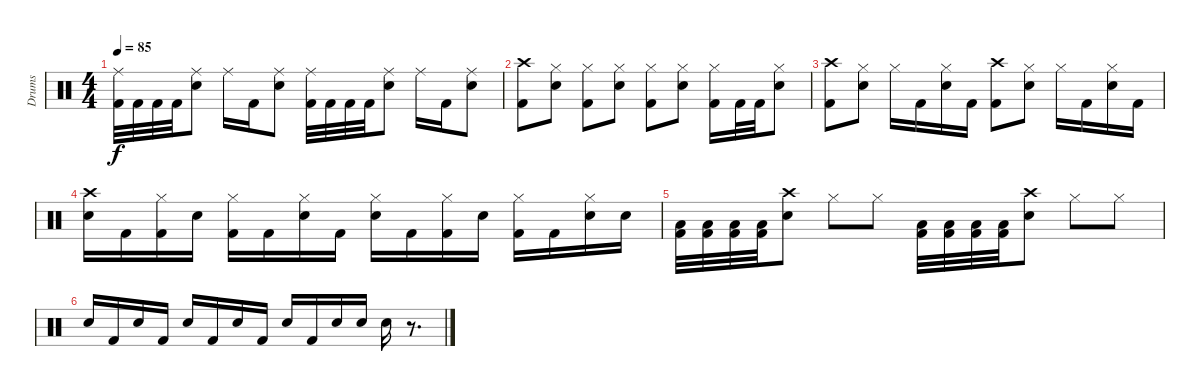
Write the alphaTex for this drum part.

\track ("Drums" "Drums") {instrument percussion}
\staff {score}
\articulation defaults
\ts (4 4)
\tempo 85
\clef neutral
\ks c
("Ride (middle)" "Kick (hit) 2").32{dy f} "Kick (hit) 2".32 "Kick (hit) 2".32 "Kick (hit) 2".32 ("Ride (middle)" "Electric Snare (hit)").8 "Ride (middle)".16 "Kick (hit) 2".16 ("Ride (middle)" "Electric Snare (hit)").8 ("Ride (middle)" "Kick (hit) 2").32 "Kick (hit) 2".32 "Kick (hit) 2".32 "Kick (hit) 2".32 ("Ride (middle)" "Electric Snare (hit)").8 "Ride (middle)".16 "Kick (hit) 2".16 ("Ride (middle)" "Electric Snare (hit)").8 |
("Crash high (hit)" "Kick (hit) 2").8 ("Hi-Hat (closed)" "Electric Snare (hit)").8 ("Hi-Hat (closed)" "Kick (hit) 2").8 ("Hi-Hat (closed)" "Electric Snare (hit)").8 ("Hi-Hat (closed)" "Kick (hit) 2").8 ("Hi-Hat (closed)" "Electric Snare (hit)").8 ("Hi-Hat (closed)" "Kick (hit) 2").16 "Kick (hit) 2".32 "Kick (hit) 2".32 ("Hi-Hat (closed)" "Electric Snare (hit)").8 |
("Crash high (hit)" "Kick (hit) 2").8 ("Hi-Hat (closed)" "Electric Snare (hit)").8 "Hi-Hat (closed)".16 "Kick (hit) 2".16 ("Hi-Hat (closed)" "Electric Snare (hit)").16 "Kick (hit) 2".16 ("Crash high (hit)" "Kick (hit) 2").8 ("Hi-Hat (closed)" "Electric Snare (hit)").8 "Hi-Hat (closed)".16 "Kick (hit) 2".16 ("Hi-Hat (closed)" "Electric Snare (hit)").16 "Kick (hit) 2".16 |
("Crash high (hit)" "Electric Snare (hit)").16 "Kick (hit) 2".16 ("Hi-Hat (closed)" "Kick (hit) 2").16 "Electric Snare (hit)".16 ("Hi-Hat (closed)" "Kick (hit) 2").16 "Kick (hit) 2".16 ("Hi-Hat (closed)" "Electric Snare (hit)").16 "Kick (hit) 2".16 ("Hi-Hat (closed)" "Electric Snare (hit)").16 "Kick (hit) 2".16 ("Hi-Hat (closed)" "Kick (hit) 2").16 "Electric Snare (hit)".16 ("Hi-Hat (closed)" "Kick (hit) 2").16 "Kick (hit) 2".16 ("Hi-Hat (closed)" "Electric Snare (hit)").16 "Electric Snare (hit)".16 |
("Low Tom (hit)" "Kick (hit) 2").32 ("Low Tom (hit)" "Kick (hit) 2").32 ("Low Tom (hit)" "Kick (hit) 2").32 ("Low Tom (hit)" "Kick (hit) 2").32 ("Crash high (hit)" "Electric Snare (hit)").8 "Hi-Hat (closed)".8 "Hi-Hat (closed)".8 ("Low Tom (hit)" "Kick (hit) 2").32 ("Low Tom (hit)" "Kick (hit) 2").32 ("Low Tom (hit)" "Kick (hit) 2").32 ("Low Tom (hit)" "Kick (hit) 2").32 ("Crash high (hit)" "Electric Snare (hit)").8 "Hi-Hat (closed)".8 "Hi-Hat (closed)".8 |
"Electric Snare (hit)".16 "Kick (hit) 2".16 "Electric Snare (hit)".16 "Kick (hit) 2".16 "Electric Snare (hit)".16 "Kick (hit) 2".16 "Electric Snare (hit)".16 "Kick (hit) 2".16 "Electric Snare (hit)".16 "Kick (hit) 2".16 "Electric Snare (hit)".16 "Electric Snare (hit)".16 "Electric Snare (hit)".16 r.8{d}
